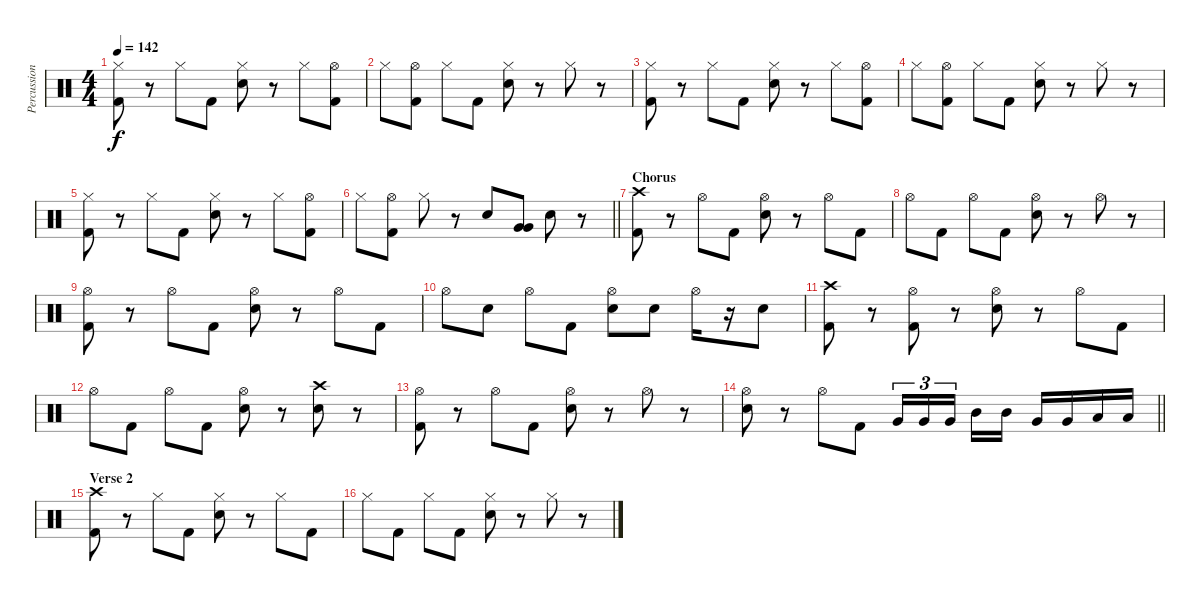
\track ("Percussion" "Percussion") {instrument percussion}
\staff {score}
\articulation defaults
\ts (4 4)
\tempo 142
\clef neutral
\ks c
("Hi-Hat (closed)" "Kick (hit) 2").8{dy f} r.8 "Hi-Hat (closed)".8 "Kick (hit) 2".8 ("Hi-Hat (closed)" "Snare (hit) 2").8 r.8 "Hi-Hat (closed)".8 ("Hi-Hat (open)" "Kick (hit) 2").8 |
"Hi-Hat (closed)".8 ("Hi-Hat (open)" "Kick (hit) 2").8 "Hi-Hat (closed)".8 "Kick (hit) 2".8 ("Hi-Hat (closed)" "Snare (hit) 2").8 r.8 "Hi-Hat (closed)".8 r.8 |
("Hi-Hat (closed)" "Kick (hit) 2").8 r.8 "Hi-Hat (closed)".8 "Kick (hit) 2".8 ("Hi-Hat (closed)" "Snare (hit) 2").8 r.8 "Hi-Hat (closed)".8 ("Hi-Hat (open)" "Kick (hit) 2").8 |
"Hi-Hat (closed)".8 ("Hi-Hat (open)" "Kick (hit) 2").8 "Hi-Hat (closed)".8 "Kick (hit) 2".8 ("Hi-Hat (closed)" "Snare (hit) 2").8 r.8 "Hi-Hat (closed)".8 r.8 |
("Hi-Hat (closed)" "Kick (hit) 2").8 r.8 "Hi-Hat (closed)".8 "Kick (hit) 2".8 ("Hi-Hat (closed)" "Snare (hit) 2").8 r.8 "Hi-Hat (closed)".8 ("Hi-Hat (open)" "Kick (hit) 2").8 |
\barLineRight lightlight "Hi-Hat (closed)".8
("Hi-Hat (open)" "Kick (hit) 2").8 "Hi-Hat (closed)".8 r.8 "Snare (hit) 2".8 ("Very Low Tom (hit)" "Very Low Tom (hit)").8 "Snare (hit) 2".8 r.8 |
\section ("" "Chorus")
("Crash high (hit)" "Kick (hit) 2").8 r.8 "Hi-Hat (open)".8 "Kick (hit) 2".8 ("Hi-Hat (open)" "Snare (hit) 2").8 r.8 "Hi-Hat (open)".8 "Kick (hit) 2".8 |
"Hi-Hat (open)".8 "Kick (hit) 2".8 "Hi-Hat (open)".8 "Kick (hit) 2".8 ("Hi-Hat (open)" "Snare (hit) 2").8 r.8 "Hi-Hat (open)".8 r.8 |
("Hi-Hat (open)" "Kick (hit) 2").8 r.8 "Hi-Hat (open)".8 "Kick (hit) 2".8 ("Hi-Hat (open)" "Snare (hit) 2").8 r.8 "Hi-Hat (open)".8 "Kick (hit) 2".8 |
"Hi-Hat (open)".8 "Snare (hit) 2".8 "Hi-Hat (open)".8 "Kick (hit) 2".8 ("Hi-Hat (open)" "Snare (hit) 2").8 "Snare (hit) 2".8 "Hi-Hat (open)".16 r.16 "Snare (hit) 2".8 |
("Crash high (hit)" "Kick (hit) 2").8 r.8 ("Hi-Hat (open)" "Kick (hit) 2").8 r.8 ("Hi-Hat (open)" "Snare (hit) 2").8 r.8 "Hi-Hat (open)".8 "Kick (hit) 2".8 |
"Hi-Hat (open)".8 "Kick (hit) 2".8 "Hi-Hat (open)".8 "Kick (hit) 2".8 ("Hi-Hat (open)" "Snare (hit) 2").8 r.8 ("Crash high (hit)" "Snare (hit) 2").8 r.8 |
("Hi-Hat (open)" "Kick (hit) 2").8 r.8 "Hi-Hat (open)".8 "Kick (hit) 2".8 ("Hi-Hat (open)" "Snare (hit) 2").8 r.8 "Hi-Hat (open)".8 r.8 |
\barLineRight lightlight
("Hi-Hat (open)" "Snare (hit) 2").8 r.8 "Hi-Hat (open)".8 "Kick (hit) 2".8 "Very Low Tom (hit)".16{tu (3 2)} "Very Low Tom (hit)".16{tu (3 2)} "Very Low Tom (hit)".16{tu (3 2) beam splitsecondary} "Mid Tom (hit)".16 "Mid Tom (hit)".16 "Very Low Tom (hit)".16 "Very Low Tom (hit)".16 "Low Floor Tom (hit)".16 "Low Floor Tom (hit)".16 |
\section ("" "Verse 2")
("Crash high (hit)" "Kick (hit) 2").8 r.8 "Hi-Hat (closed)".8 "Kick (hit) 2".8 ("Hi-Hat (closed)" "Snare (hit) 2").8 r.8 "Hi-Hat (closed)".8 "Kick (hit) 2".8 |
"Hi-Hat (closed)".8 "Kick (hit) 2".8 "Hi-Hat (closed)".8 "Kick (hit) 2".8 ("Hi-Hat (closed)" "Snare (hit) 2").8 r.8 "Hi-Hat (closed)".8 r.8
